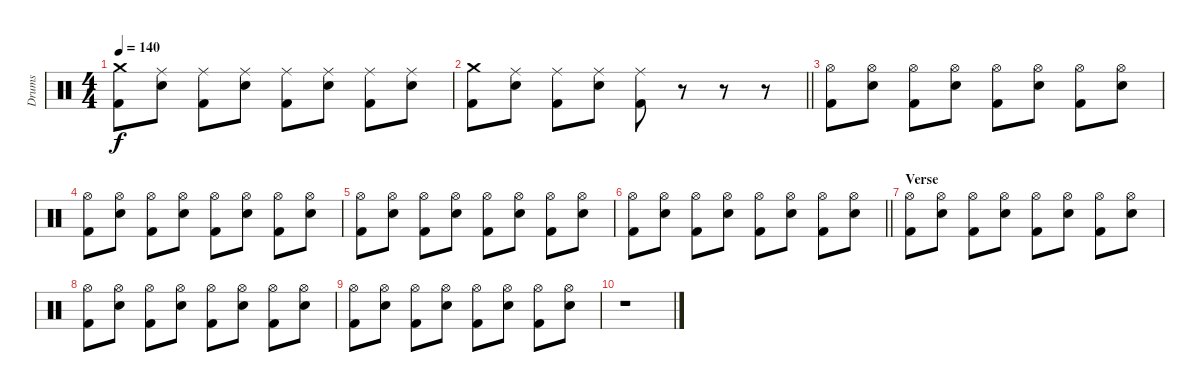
\track ("Drums" "Drums") {instrument percussion}
\staff {score}
\articulation defaults
\ts (4 4)
\tempo 140
\clef neutral
\ks c
("Crash medium (hit)" "Kick (hit) 2").8{dy f} ("Ride (middle)" "Snare (hit) 2").8 ("Ride (middle)" "Kick (hit) 2").8 ("Ride (middle)" "Snare (hit) 2").8 ("Ride (middle)" "Kick (hit) 2").8 ("Ride (middle)" "Snare (hit) 2").8 ("Ride (middle)" "Kick (hit) 2").8 ("Ride (middle)" "Snare (hit) 2").8 |
\barLineRight lightlight
("Crash medium (hit)" "Kick (hit) 2").8 ("Ride (middle)" "Snare (hit) 2").8 ("Ride (middle)" "Kick (hit) 2").8 ("Ride (middle)" "Snare (hit) 2").8 ("Ride (middle)" "Kick (hit) 2").8 r.8 r.8 r.8 |
\section ("" "")
("Hi-Hat (open)" "Kick (hit) 2").8 ("Hi-Hat (open)" "Snare (hit) 2").8 ("Hi-Hat (open)" "Kick (hit) 2").8 ("Hi-Hat (open)" "Snare (hit) 2").8 ("Hi-Hat (open)" "Kick (hit) 2").8 ("Hi-Hat (open)" "Snare (hit) 2").8 ("Hi-Hat (open)" "Kick (hit) 2").8 ("Hi-Hat (open)" "Snare (hit) 2").8 |
("Hi-Hat (open)" "Kick (hit) 2").8 ("Hi-Hat (open)" "Snare (hit) 2").8 ("Hi-Hat (open)" "Kick (hit) 2").8 ("Hi-Hat (open)" "Snare (hit) 2").8 ("Hi-Hat (open)" "Kick (hit) 2").8 ("Hi-Hat (open)" "Snare (hit) 2").8 ("Hi-Hat (open)" "Kick (hit) 2").8 ("Hi-Hat (open)" "Snare (hit) 2").8 |
("Hi-Hat (open)" "Kick (hit) 2").8 ("Hi-Hat (open)" "Snare (hit) 2").8 ("Hi-Hat (open)" "Kick (hit) 2").8 ("Hi-Hat (open)" "Snare (hit) 2").8 ("Hi-Hat (open)" "Kick (hit) 2").8 ("Hi-Hat (open)" "Snare (hit) 2").8 ("Hi-Hat (open)" "Kick (hit) 2").8 ("Hi-Hat (open)" "Snare (hit) 2").8 |
\barLineRight lightlight
("Hi-Hat (open)" "Kick (hit) 2").8 ("Hi-Hat (open)" "Snare (hit) 2").8 ("Hi-Hat (open)" "Kick (hit) 2").8 ("Hi-Hat (open)" "Snare (hit) 2").8 ("Hi-Hat (open)" "Kick (hit) 2").8 ("Hi-Hat (open)" "Snare (hit) 2").8 ("Hi-Hat (open)" "Kick (hit) 2").8 ("Hi-Hat (open)" "Snare (hit) 2").8 |
\section ("" "Verse")
("Hi-Hat (open)" "Kick (hit) 2").8 ("Hi-Hat (open)" "Snare (hit) 2").8 ("Hi-Hat (open)" "Kick (hit) 2").8 ("Hi-Hat (open)" "Snare (hit) 2").8 ("Hi-Hat (open)" "Kick (hit) 2").8 ("Hi-Hat (open)" "Snare (hit) 2").8 ("Hi-Hat (open)" "Kick (hit) 2").8 ("Hi-Hat (open)" "Snare (hit) 2").8 |
("Hi-Hat (open)" "Kick (hit) 2").8 ("Hi-Hat (open)" "Snare (hit) 2").8 ("Hi-Hat (open)" "Kick (hit) 2").8 ("Hi-Hat (open)" "Snare (hit) 2").8 ("Hi-Hat (open)" "Kick (hit) 2").8 ("Hi-Hat (open)" "Snare (hit) 2").8 ("Hi-Hat (open)" "Kick (hit) 2").8 ("Hi-Hat (open)" "Snare (hit) 2").8 |
("Hi-Hat (open)" "Kick (hit) 2").8 ("Hi-Hat (open)" "Snare (hit) 2").8 ("Hi-Hat (open)" "Kick (hit) 2").8 ("Hi-Hat (open)" "Snare (hit) 2").8 ("Hi-Hat (open)" "Kick (hit) 2").8 ("Hi-Hat (open)" "Snare (hit) 2").8 ("Hi-Hat (open)" "Kick (hit) 2").8 ("Hi-Hat (open)" "Snare (hit) 2").8 |
r.1
